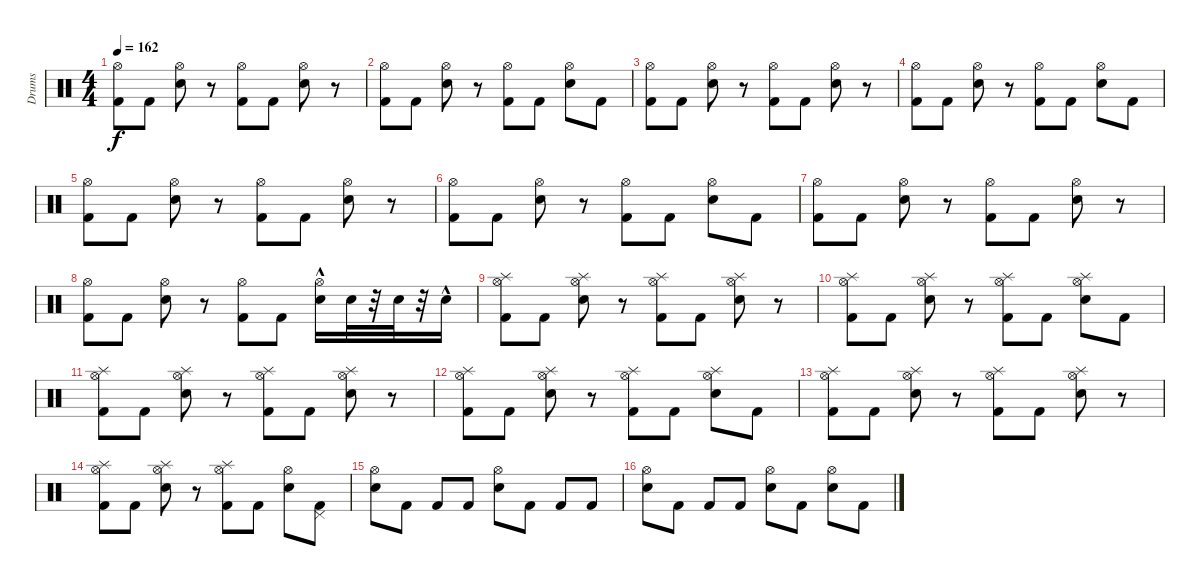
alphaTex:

\track ("Drums" "Drums") {instrument percussion}
\staff {score}
\articulation defaults
\ts (4 4)
\tempo 162
\clef neutral
\ks c
("Hi-Hat (open)" "Kick (hit) 2").8{dy f} "Kick (hit) 2".8 ("Hi-Hat (open)" "Electric Snare (hit)").8 r.8 ("Hi-Hat (open)" "Kick (hit) 2").8 "Kick (hit) 2".8 ("Hi-Hat (open)" "Electric Snare (hit)").8 r.8 |
("Hi-Hat (open)" "Kick (hit) 2").8 "Kick (hit) 2".8 ("Hi-Hat (open)" "Electric Snare (hit)").8 r.8 ("Hi-Hat (open)" "Kick (hit) 2").8 "Kick (hit) 2".8 ("Hi-Hat (open)" "Electric Snare (hit)").8 "Kick (hit) 2".8 |
("Hi-Hat (open)" "Kick (hit) 2").8 "Kick (hit) 2".8 ("Hi-Hat (open)" "Electric Snare (hit)").8 r.8 ("Hi-Hat (open)" "Kick (hit) 2").8 "Kick (hit) 2".8 ("Hi-Hat (open)" "Electric Snare (hit)").8 r.8 |
("Hi-Hat (open)" "Kick (hit) 2").8 "Kick (hit) 2".8 ("Hi-Hat (open)" "Electric Snare (hit)").8 r.8 ("Hi-Hat (open)" "Kick (hit) 2").8 "Kick (hit) 2".8 ("Hi-Hat (open)" "Electric Snare (hit)").8 "Kick (hit) 2".8 |
("Hi-Hat (open)" "Kick (hit) 2").8 "Kick (hit) 2".8 ("Hi-Hat (open)" "Electric Snare (hit)").8 r.8 ("Hi-Hat (open)" "Kick (hit) 2").8 "Kick (hit) 2".8 ("Hi-Hat (open)" "Electric Snare (hit)").8 r.8 |
("Hi-Hat (open)" "Kick (hit) 2").8 "Kick (hit) 2".8 ("Hi-Hat (open)" "Electric Snare (hit)").8 r.8 ("Hi-Hat (open)" "Kick (hit) 2").8 "Kick (hit) 2".8 ("Hi-Hat (open)" "Electric Snare (hit)").8 "Kick (hit) 2".8 |
("Hi-Hat (open)" "Kick (hit) 2").8 "Kick (hit) 2".8 ("Hi-Hat (open)" "Electric Snare (hit)").8 r.8 ("Hi-Hat (open)" "Kick (hit) 2").8 "Kick (hit) 2".8 ("Hi-Hat (open)" "Electric Snare (hit)").8 r.8 |
("Hi-Hat (open)" "Kick (hit) 2").8 "Kick (hit) 2".8 ("Hi-Hat (open)" "Electric Snare (hit)").8 r.8 ("Hi-Hat (open)" "Kick (hit) 2").8 "Kick (hit) 2".8 ("Hi-Hat (open)"{hac} "Electric Snare (hit)").16 "Electric Snare (hit)".32 r.32 "Electric Snare (hit)".32 r.32 "Electric Snare (hit)"{hac}.16 |
("Kick (hit) 2" "Splash (hit)" "Hi-Hat (open)").8 "Kick (hit) 2".8 ("Electric Snare (hit)" "Splash (hit)" "Hi-Hat (open)").8 r.8 ("Kick (hit) 2" "Splash (hit)" "Hi-Hat (open)").8 "Kick (hit) 2".8 ("Electric Snare (hit)" "Splash (hit)" "Hi-Hat (open)").8 r.8 |
("Hi-Hat (open)" "Kick (hit) 2" "Splash (hit)").8 "Kick (hit) 2".8 ("Hi-Hat (open)" "Electric Snare (hit)" "Splash (hit)").8 r.8 ("Hi-Hat (open)" "Kick (hit) 2" "Splash (hit)").8 "Kick (hit) 2".8 ("Hi-Hat (open)" "Electric Snare (hit)" "Splash (hit)").8 "Kick (hit) 2".8 |
("Kick (hit) 2" "Splash (hit)" "Hi-Hat (open)").8 "Kick (hit) 2".8 ("Electric Snare (hit)" "Splash (hit)" "Hi-Hat (open)").8 r.8 ("Kick (hit) 2" "Splash (hit)" "Hi-Hat (open)").8 "Kick (hit) 2".8 ("Electric Snare (hit)" "Splash (hit)" "Hi-Hat (open)").8 r.8 |
("Hi-Hat (open)" "Kick (hit) 2" "Splash (hit)").8 "Kick (hit) 2".8 ("Hi-Hat (open)" "Electric Snare (hit)" "Splash (hit)").8 r.8 ("Hi-Hat (open)" "Kick (hit) 2" "Splash (hit)").8 "Kick (hit) 2".8 ("Hi-Hat (open)" "Electric Snare (hit)" "Splash (hit)").8 "Kick (hit) 2".8 |
("Kick (hit) 2" "Splash (hit)" "Hi-Hat (open)").8 "Kick (hit) 2".8 ("Electric Snare (hit)" "Splash (hit)" "Hi-Hat (open)").8 r.8 ("Kick (hit) 2" "Splash (hit)" "Hi-Hat (open)").8 "Kick (hit) 2".8 ("Electric Snare (hit)" "Splash (hit)" "Hi-Hat (open)").8 r.8 |
("Hi-Hat (open)" "Kick (hit) 2" "Splash (hit)").8 "Kick (hit) 2".8 ("Hi-Hat (open)" "Electric Snare (hit)" "Splash (hit)").8 r.8 ("Hi-Hat (open)" "Kick (hit) 2" "Splash (hit)").8 "Kick (hit) 2".8 ("Electric Snare (hit)" "Hi-Hat (open)").8 ("Kick (hit) 2" "Pedal Hi-Hat (hit)").8 |
("Electric Snare (hit)" "Hi-Hat (open)").8 "Kick (hit) 2".8 "Kick (hit) 2".8 "Kick (hit) 2".8 ("Electric Snare (hit)" "Hi-Hat (open)").8 "Kick (hit) 2".8 "Kick (hit) 2".8 "Kick (hit) 2".8 |
("Electric Snare (hit)" "Hi-Hat (open)").8 "Kick (hit) 2".8 "Kick (hit) 2".8 "Kick (hit) 2".8 ("Electric Snare (hit)" "Hi-Hat (open)").8 "Kick (hit) 2".8 ("Electric Snare (hit)" "Hi-Hat (open)").8 "Kick (hit) 2".8
